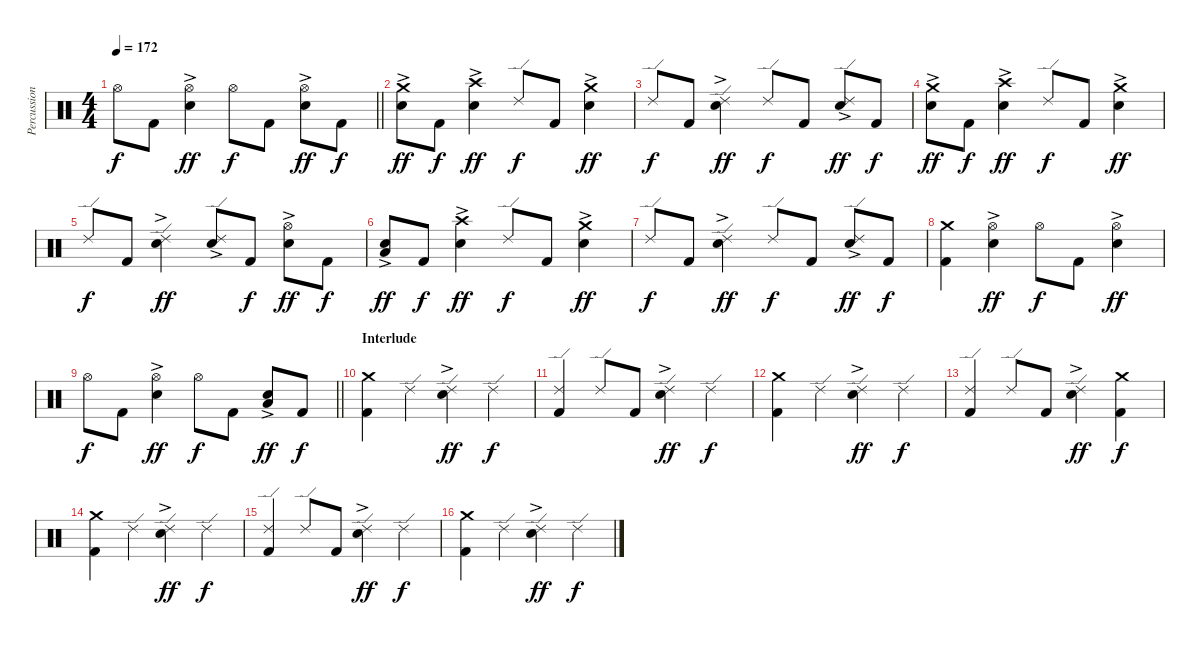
\track ("Percussion" "Percussion") {instrument percussion}
\staff {score}
\articulation defaults
\ts (4 4)
\tempo 172
\clef neutral
\barLineRight lightlight
\ks c "Hi-Hat (open)".8{dy f} "Kick (hit) 2".8
("Hi-Hat (open)" "Electric Snare (hit)"{ac}).4{dy ff} "Hi-Hat (open)".8{dy f} "Kick (hit) 2".8 ("Hi-Hat (open)" "Electric Snare (hit)"{ac}).8{dy ff} "Kick (hit) 2".8{dy f} |
("Crash medium (hit)" "Electric Snare (hit)"{ac}).8{dy ff} "Kick (hit) 2".8{dy f} ("Crash high (hit)" "Electric Snare (hit)"{ac}).4{dy ff} "Ride (edge) 2".8{dy f} "Kick (hit) 2".8 ("Crash medium (hit)" "Electric Snare (hit)"{ac}).4{dy ff} |
"Ride (edge) 2".8{dy f} "Kick (hit) 2".8 ("Ride (edge) 2" "Electric Snare (hit)"{ac}).4{dy ff} "Ride (edge) 2".8{dy f} "Kick (hit) 2".8 ("Ride (edge) 2" "Electric Snare (hit)"{ac}).8{dy ff} "Kick (hit) 2".8{dy f} |
("Crash medium (hit)" "Electric Snare (hit)"{ac}).8{dy ff} "Kick (hit) 2".8{dy f} ("Crash high (hit)" "Electric Snare (hit)"{ac}).4{dy ff} "Ride (edge) 2".8{dy f} "Kick (hit) 2".8 ("Crash medium (hit)" "Electric Snare (hit)"{ac}).4{dy ff} |
"Ride (edge) 2".8{dy f} "Kick (hit) 2".8 ("Ride (edge) 2" "Electric Snare (hit)"{ac}).4{dy ff} ("Ride (edge) 2" "Electric Snare (hit)"{ac}).8 "Kick (hit) 2".8{dy f} ("Hi-Hat (open)" "Electric Snare (hit)"{ac}).8{dy ff} "Kick (hit) 2".8{dy f} |
("Low Tom (hit)"{ac} "Electric Snare (hit)"{ac}).8{dy ff} "Kick (hit) 2".8{dy f} ("Crash high (hit)" "Electric Snare (hit)"{ac}).4{dy ff} "Ride (edge) 2".8{dy f} "Kick (hit) 2".8 ("Crash medium (hit)" "Electric Snare (hit)"{ac}).4{dy ff} |
"Ride (edge) 2".8{dy f} "Kick (hit) 2".8 ("Ride (edge) 2" "Electric Snare (hit)"{ac}).4{dy ff} "Ride (edge) 2".8{dy f} "Kick (hit) 2".8 ("Ride (edge) 2" "Electric Snare (hit)"{ac}).8{dy ff} "Kick (hit) 2".8{dy f} |
("Crash medium (hit)" "Kick (hit) 2").4 ("Hi-Hat (open)" "Electric Snare (hit)"{ac}).4{dy ff} "Hi-Hat (open)".8{dy f} "Kick (hit) 2".8 ("Hi-Hat (open)" "Electric Snare (hit)"{ac}).4{dy ff} |
\barLineRight lightlight "Hi-Hat (open)".8{dy f} "Kick (hit) 2".8
("Hi-Hat (open)" "Electric Snare (hit)"{ac}).4{dy ff} "Hi-Hat (open)".8{dy f} "Kick (hit) 2".8 ("Low Tom (hit)"{ac} "Electric Snare (hit)"{ac}).8{bu 120 dy ff} "Kick (hit) 2".8{dy f} |
\section ("" "Interlude")
("Crash medium (hit)" "Kick (hit) 2").4 "Ride (edge) 2".4 ("Ride (edge) 2" "Electric Snare (hit)"{ac}).4{dy ff} "Ride (edge) 2".4{dy f} |
("Ride (edge) 2" "Kick (hit) 2").4 "Ride (edge) 2".8 "Kick (hit) 2".8 ("Ride (edge) 2" "Electric Snare (hit)"{ac}).4{dy ff} "Ride (edge) 2".4{dy f} |
("Crash medium (hit)" "Kick (hit) 2").4 "Ride (edge) 2".4 ("Ride (edge) 2" "Electric Snare (hit)"{ac}).4{dy ff} "Ride (edge) 2".4{dy f} |
("Ride (edge) 2" "Kick (hit) 2").4 "Ride (edge) 2".8 "Kick (hit) 2".8 ("Ride (edge) 2" "Electric Snare (hit)"{ac}).4{dy ff} ("Crash medium (hit)" "Kick (hit) 2").4{dy f} |
("Crash medium (hit)" "Kick (hit) 2").4 "Ride (edge) 2".4 ("Ride (edge) 2" "Electric Snare (hit)"{ac}).4{dy ff} "Ride (edge) 2".4{dy f} |
("Ride (edge) 2" "Kick (hit) 2").4 "Ride (edge) 2".8 "Kick (hit) 2".8 ("Ride (edge) 2" "Electric Snare (hit)"{ac}).4{dy ff} "Ride (edge) 2".4{dy f} |
("Crash medium (hit)" "Kick (hit) 2").4 "Ride (edge) 2".4 ("Ride (edge) 2" "Electric Snare (hit)"{ac}).4{dy ff} "Ride (edge) 2".4{dy f}
